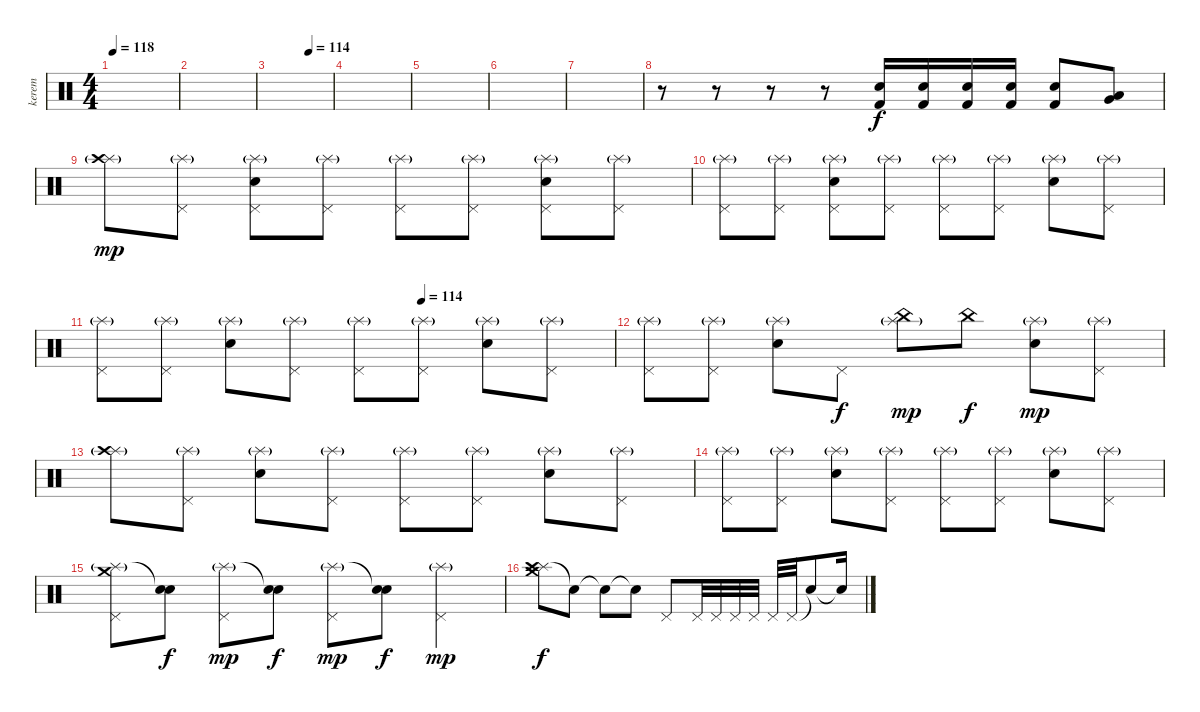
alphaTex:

\track ("kerem" "kerem") {instrument percussion}
\staff {score}
\articulation defaults
\ts (4 4)
\tempo 118
\clef neutral
\ks c
|
|
\tempo (114 0.625)
|
|
|
|
|
r.8 r.8 r.8 r.8 ("Kick (hit) 2" "Snare (hit) 2").16 ("Kick (hit) 2" "Snare (hit) 2").16 ("Kick (hit) 2" "Snare (hit) 2").16 ("Kick (hit) 2" "Snare (hit) 2").16 ("Kick (hit) 2" "Snare (hit) 2").8 ("Very Low Tom (hit)" "Low Floor Tom (hit)").8 |
("Splash (hit)"{g} "Crash high (hit)").8{dy mp} ("Splash (hit)"{g} "Pedal Hi-Hat (hit)").8 ("Splash (hit)"{g} "Snare (hit) 2" "Pedal Hi-Hat (hit)").8 ("Splash (hit)"{g} "Pedal Hi-Hat (hit)").8 ("Splash (hit)"{g} "Pedal Hi-Hat (hit)").8 ("Splash (hit)"{g} "Pedal Hi-Hat (hit)").8 ("Splash (hit)"{g} "Snare (hit) 2" "Pedal Hi-Hat (hit)").8 ("Splash (hit)"{g} "Pedal Hi-Hat (hit)").8 |
("Splash (hit)"{g} "Pedal Hi-Hat (hit)").8 ("Splash (hit)"{g} "Pedal Hi-Hat (hit)").8 ("Splash (hit)"{g} "Snare (hit) 2" "Pedal Hi-Hat (hit)").8 ("Splash (hit)"{g} "Pedal Hi-Hat (hit)").8 ("Splash (hit)"{g} "Pedal Hi-Hat (hit)").8 ("Splash (hit)"{g} "Pedal Hi-Hat (hit)").8 ("Splash (hit)"{g} "Snare (hit) 2").8 ("Splash (hit)"{g} "Pedal Hi-Hat (hit)").8 |
\tempo (114 0.625)
("Splash (hit)"{g} "Pedal Hi-Hat (hit)").8 ("Splash (hit)"{g} "Pedal Hi-Hat (hit)").8 ("Splash (hit)"{g} "Snare (hit) 2").8 ("Splash (hit)"{g} "Pedal Hi-Hat (hit)").8 ("Splash (hit)"{g} "Pedal Hi-Hat (hit)").8 ("Splash (hit)"{g} "Pedal Hi-Hat (hit)").8 ("Splash (hit)"{g} "Snare (hit) 2").8 ("Splash (hit)"{g} "Pedal Hi-Hat (hit)").8 |
("Splash (hit)"{g} "Pedal Hi-Hat (hit)").8 ("Splash (hit)"{g} "Pedal Hi-Hat (hit)").8 ("Splash (hit)"{g} "Snare (hit) 2").8 "Pedal Hi-Hat (hit)".8{dy f} ("Splash (hit)"{g} "China (hit)").8{dy mp} "China (hit)".8{dy f} ("Splash (hit)"{g} "Snare (hit) 2").8{dy mp} ("Splash (hit)"{g} "Pedal Hi-Hat (hit)").8 |
("Splash (hit)"{g} "Crash high (hit)").8 ("Splash (hit)"{g} "Pedal Hi-Hat (hit)").8 ("Splash (hit)"{g} "Snare (hit) 2").8 ("Splash (hit)"{g} "Pedal Hi-Hat (hit)").8 ("Splash (hit)"{g} "Pedal Hi-Hat (hit)").8 ("Splash (hit)"{g} "Pedal Hi-Hat (hit)").8 ("Splash (hit)"{g} "Snare (hit) 2").8 ("Splash (hit)"{g} "Pedal Hi-Hat (hit)").8 |
("Splash (hit)"{g} "Pedal Hi-Hat (hit)").8 ("Splash (hit)"{g} "Pedal Hi-Hat (hit)").8 ("Splash (hit)"{g} "Snare (hit) 2").8 ("Splash (hit)"{g} "Pedal Hi-Hat (hit)").8 ("Splash (hit)"{g} "Pedal Hi-Hat (hit)").8 ("Splash (hit)"{g} "Pedal Hi-Hat (hit)").8 ("Splash (hit)"{g} "Snare (hit) 2").8 ("Splash (hit)"{g} "Pedal Hi-Hat (hit)").8 |
("Splash (hit)"{g} "Crash medium (hit)" "Pedal Hi-Hat (hit)").8 ("Snare (hit)"{t} "Snare (hit) 2").8{dy f} ("Splash (hit)"{g} "Pedal Hi-Hat (hit)").8{dy mp} ("Snare (hit)"{t} "Snare (hit) 2").8{dy f} ("Splash (hit)"{g} "Pedal Hi-Hat (hit)").8{dy mp} ("Snare (hit)"{t} "Snare (hit) 2").8{dy f} ("Splash (hit)"{g} "Pedal Hi-Hat (hit)").4{dy mp} |
("Splash (hit)" "Crash high (hit)" "Crash medium (hit)").8{dy f} "Snare (hit)"{t}.8 "Snare (hit)"{t}.8 "Snare (hit)"{t}.8 "Pedal Hi-Hat (hit)".8 "Pedal Hi-Hat (hit)".32 "Pedal Hi-Hat (hit)".32 "Pedal Hi-Hat (hit)".32 "Pedal Hi-Hat (hit)".32 "Pedal Hi-Hat (hit)".32 "Pedal Hi-Hat (hit)".32 "Snare (hit)"{t}.8 "Snare (hit)"{t}.16
